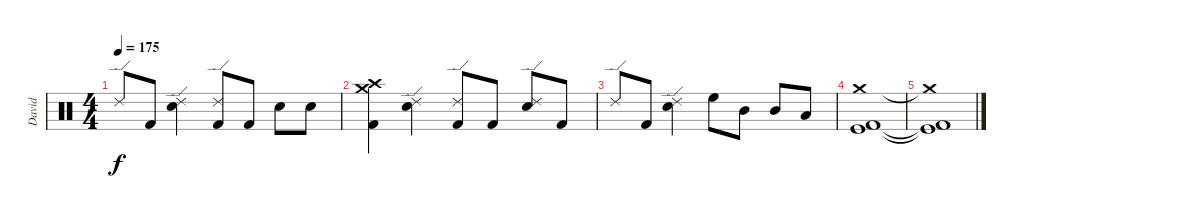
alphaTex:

\track ("David" "David") {instrument percussion}
\staff {score}
\articulation defaults
\ts (4 4)
\tempo 175
\clef neutral
\ks c "Ride (edge) 2".8{dy f} "Kick (hit) 2".8
("Ride (edge) 2" "Snare (hit) 2").4 ("Ride (edge) 2" "Kick (hit) 2").8 "Kick (hit) 2".8 "Snare (hit) 2".8 "Snare (hit) 2".8 |
("Crash high (hit)" "Crash medium (hit)" "Kick (hit) 2").4 ("Ride (edge) 2" "Snare (hit) 2").4 ("Ride (edge) 2" "Kick (hit) 2").8 "Kick (hit) 2".8 ("Ride (edge) 2" "Snare (hit) 2").8 "Kick (hit) 2".8 |
"Ride (edge) 2".8 "Kick (hit) 2".8 ("Ride (edge) 2" "Snare (hit) 2").4 "High Floor Tom (hit)".8 "Mid Tom (hit)".8 "Mid Tom (hit)".8 "Low Tom (hit)".8 |
("Crash medium (hit)" "Kick (hit) 2" "Kick (hit)").1 |
("Crash medium (hit)"{t} "Kick (hit) 2"{t} "Kick (hit)"{t}).1
